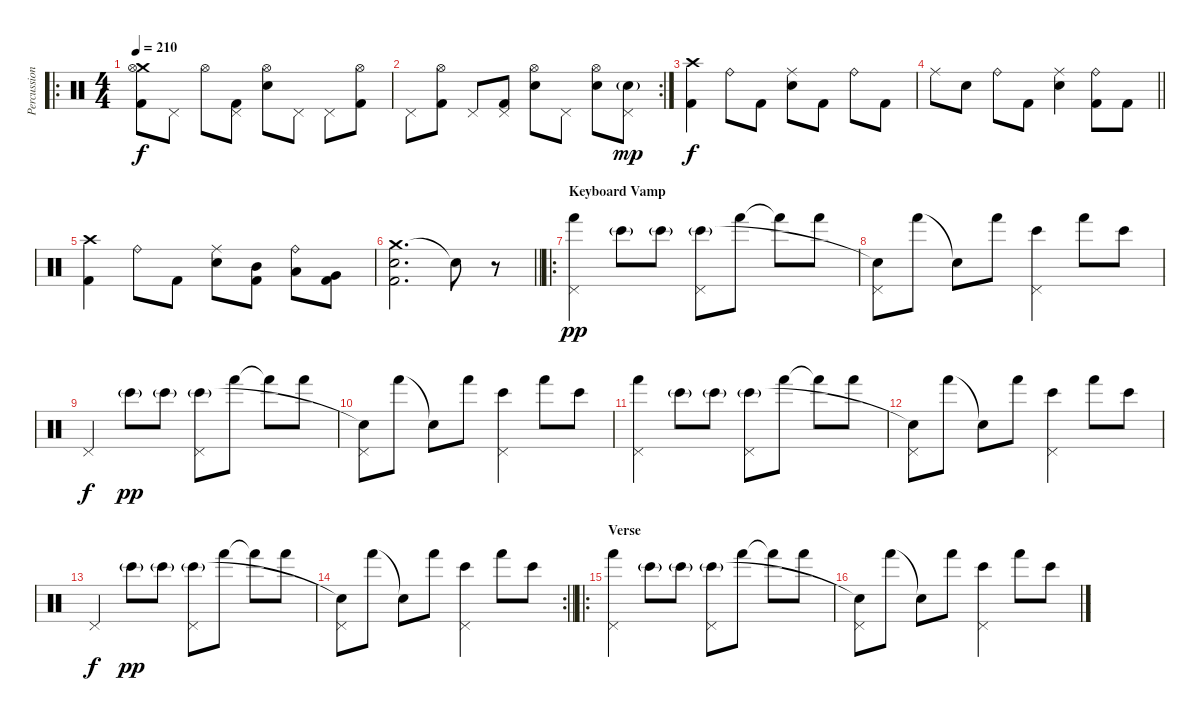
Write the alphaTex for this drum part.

\track ("Percussion" "Percussion") {instrument percussion}
\staff {score}
\articulation defaults
\ro
\ts (4 4)
\tempo 210
\clef neutral
\ks c
("Crash medium (hit)" "Hi-Hat (open)" "Kick (hit) 2").8{dy f} "Pedal Hi-Hat (hit)".8 "Hi-Hat (open)".8 ("Pedal Hi-Hat (hit)" "Kick (hit) 2").8 ("Hi-Hat (open)" "Electric Snare (hit)").8 "Pedal Hi-Hat (hit)".8 "Pedal Hi-Hat (hit)".8 ("Hi-Hat (open)" "Kick (hit) 2").8 |
\rc 2 "Pedal Hi-Hat (hit)".8
("Hi-Hat (open)" "Kick (hit) 2").8 "Pedal Hi-Hat (hit)".8 ("Pedal Hi-Hat (hit)" "Kick (hit) 2").8 ("Hi-Hat (open)" "Electric Snare (hit)").8 "Pedal Hi-Hat (hit)".8 ("Hi-Hat (open)" "Electric Snare (hit)").8 ("Pedal Hi-Hat (hit)" "Electric Snare (hit)"{g}).8{dy mp} |
("Crash high (hit)" "Kick (hit) 2").4{dy f} "Ride (bell)".8 "Kick (hit) 2".8 ("Ride (middle)" "Electric Snare (hit)").8 "Kick (hit) 2".8 "Ride (bell)".8 "Kick (hit) 2".8 |
\barLineRight lightlight "Ride (middle)".8 "Electric Snare (hit)".8 "Ride (bell)".8 "Kick (hit) 2".8
("Ride (middle)" "Electric Snare (hit)").4 ("Ride (bell)" "Kick (hit) 2").8 "Kick (hit) 2".8 |
("Crash high (hit)" "Kick (hit) 2").4 "Ride (bell)".8 "Kick (hit) 2".8 ("Ride (middle)" "Electric Snare (hit)").8 ("Mid Tom (hit)" "Kick (hit) 2").8 ("Ride (bell)" "Low Tom (hit)").8 ("Very Low Tom (hit)" "Kick (hit) 2").8 |
\barLineRight lightlight
("Crash medium (hit)" "Electric Snare (hit)" "Kick (hit) 2").2{d volume 7} "Snare (hit)"{t}.8 r.8{volume 5} |
\ro
\section ("" "Keyboard Vamp")
("Pedal Hi-Hat (hit)" "Hand (hit)").4{dy pp volume 13} "Bongo High (hit)"{g}.8 "Bongo High (hit)"{g}.8 ("Pedal Hi-Hat (hit)" "Bongo High (hit)"{g}).8 "Hand (hit)".8 "Hand (hit)"{t}.8 "Hand (hit)".8 |
("Pedal Hi-Hat (hit)" "Snare (hit)"{t}).8 "Hand (hit)".8 "Snare (hit)"{t}.8 "Hand (hit)".8 ("Pedal Hi-Hat (hit)" "Bongo High (hit)").4 "Hand (hit)".8 "Bongo High (hit)".8 |
"Pedal Hi-Hat (hit)".4{dy f} "Bongo High (hit)"{g}.8{dy pp} "Bongo High (hit)"{g}.8 ("Pedal Hi-Hat (hit)" "Bongo High (hit)"{g}).8 "Hand (hit)".8 "Hand (hit)"{t}.8 "Hand (hit)".8 |
("Pedal Hi-Hat (hit)" "Snare (hit)"{t}).8 "Hand (hit)".8 "Snare (hit)"{t}.8 "Hand (hit)".8 ("Pedal Hi-Hat (hit)" "Bongo High (hit)").4 "Hand (hit)".8 "Bongo High (hit)".8 |
("Pedal Hi-Hat (hit)" "Hand (hit)").4 "Bongo High (hit)"{g}.8 "Bongo High (hit)"{g}.8 ("Pedal Hi-Hat (hit)" "Bongo High (hit)"{g}).8 "Hand (hit)".8 "Hand (hit)"{t}.8 "Hand (hit)".8 |
("Pedal Hi-Hat (hit)" "Snare (hit)"{t}).8 "Hand (hit)".8 "Snare (hit)"{t}.8 "Hand (hit)".8 ("Pedal Hi-Hat (hit)" "Bongo High (hit)").4 "Hand (hit)".8 "Bongo High (hit)".8 |
"Pedal Hi-Hat (hit)".4{dy f} "Bongo High (hit)"{g}.8{dy pp} "Bongo High (hit)"{g}.8 ("Pedal Hi-Hat (hit)" "Bongo High (hit)"{g}).8 "Hand (hit)".8 "Hand (hit)"{t}.8 "Hand (hit)".8 |
\rc 2
\barLineRight lightlight
("Pedal Hi-Hat (hit)" "Snare (hit)"{t}).8 "Hand (hit)".8 "Snare (hit)"{t}.8 "Hand (hit)".8 ("Pedal Hi-Hat (hit)" "Bongo High (hit)").4 "Hand (hit)".8 "Bongo High (hit)".8 |
\ro
\section ("" "Verse")
("Pedal Hi-Hat (hit)" "Hand (hit)").4 "Bongo High (hit)"{g}.8 "Bongo High (hit)"{g}.8 ("Pedal Hi-Hat (hit)" "Bongo High (hit)"{g}).8 "Hand (hit)".8 "Hand (hit)"{t}.8 "Hand (hit)".8 |
("Pedal Hi-Hat (hit)" "Snare (hit)"{t}).8 "Hand (hit)".8 "Snare (hit)"{t}.8 "Hand (hit)".8 ("Pedal Hi-Hat (hit)" "Bongo High (hit)").4 "Hand (hit)".8 "Bongo High (hit)".8
